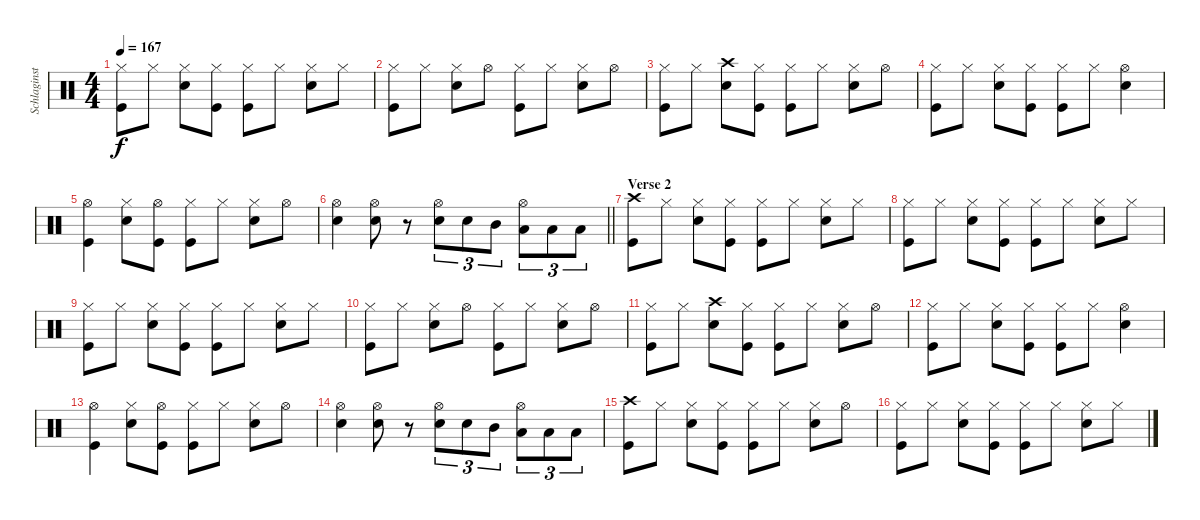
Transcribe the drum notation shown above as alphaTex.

\track ("Schlaginstrumente - Auswahl" "Schlaginst") {instrument percussion}
\staff {score}
\articulation defaults
\ts (4 4)
\tempo 167
\clef neutral
\ks c
("Hi-Hat (closed)" "Kick (hit)").8{dy f} "Hi-Hat (closed)".8 ("Hi-Hat (closed)" "Snare (hit) 2").8 ("Hi-Hat (closed)" "Kick (hit)").8 ("Hi-Hat (closed)" "Kick (hit)").8 "Hi-Hat (closed)".8 ("Hi-Hat (closed)" "Snare (hit) 2").8 "Hi-Hat (closed)".8 |
("Hi-Hat (closed)" "Kick (hit)").8 "Hi-Hat (closed)".8 ("Hi-Hat (closed)" "Snare (hit) 2").8 "Hi-Hat (open)".8 ("Hi-Hat (closed)" "Kick (hit)").8 "Hi-Hat (closed)".8 ("Hi-Hat (closed)" "Snare (hit) 2").8 "Hi-Hat (open)".8 |
("Hi-Hat (closed)" "Kick (hit)").8 "Hi-Hat (closed)".8 ("Crash high (hit)" "Snare (hit) 2").8 ("Hi-Hat (closed)" "Kick (hit)").8 ("Hi-Hat (closed)" "Kick (hit)").8 "Hi-Hat (closed)".8 ("Hi-Hat (closed)" "Snare (hit) 2").8 "Hi-Hat (open)".8 |
("Hi-Hat (closed)" "Kick (hit)").8 "Hi-Hat (closed)".8 ("Hi-Hat (closed)" "Snare (hit) 2").8 ("Hi-Hat (closed)" "Kick (hit)").8 ("Hi-Hat (closed)" "Kick (hit)").8 "Hi-Hat (closed)".8 ("Hi-Hat (open)" "Snare (hit) 2").4 |
("Hi-Hat (open)" "Kick (hit)").4 ("Hi-Hat (closed)" "Snare (hit) 2").8 ("Hi-Hat (open)" "Kick (hit)").8 ("Hi-Hat (closed)" "Kick (hit)").8 "Hi-Hat (closed)".8 ("Hi-Hat (closed)" "Snare (hit) 2").8 "Hi-Hat (open)".8 |
\barLineRight lightlight
("Hi-Hat (open)" "Snare (hit) 2").4 ("Hi-Hat (open)" "Snare (hit) 2").8 r.8 ("Hi-Hat (open)" "Snare (hit) 2").8{tu (3 2)} "Snare (hit) 2".8{tu (3 2)} "Mid Tom (hit)".8{tu (3 2)} ("Hi-Hat (open)" "Low Tom (hit)").8{tu (3 2)} "Low Tom (hit)".8{tu (3 2)} "Low Tom (hit)".8{tu (3 2)} |
\section ("" "Verse 2")
("Crash high (hit)" "Kick (hit)").8 "Hi-Hat (closed)".8 ("Hi-Hat (closed)" "Snare (hit) 2").8 ("Hi-Hat (closed)" "Kick (hit)").8 ("Hi-Hat (closed)" "Kick (hit)").8 "Hi-Hat (closed)".8 ("Hi-Hat (closed)" "Snare (hit) 2").8 "Hi-Hat (closed)".8 |
("Hi-Hat (closed)" "Kick (hit)").8 "Hi-Hat (closed)".8 ("Hi-Hat (closed)" "Snare (hit) 2").8 ("Hi-Hat (closed)" "Kick (hit)").8 ("Hi-Hat (closed)" "Kick (hit)").8 "Hi-Hat (closed)".8 ("Hi-Hat (closed)" "Snare (hit) 2").8 "Hi-Hat (closed)".8 |
("Hi-Hat (closed)" "Kick (hit)").8 "Hi-Hat (closed)".8 ("Hi-Hat (closed)" "Snare (hit) 2").8 ("Hi-Hat (closed)" "Kick (hit)").8 ("Hi-Hat (closed)" "Kick (hit)").8 "Hi-Hat (closed)".8 ("Hi-Hat (closed)" "Snare (hit) 2").8 "Hi-Hat (closed)".8 |
("Hi-Hat (closed)" "Kick (hit)").8 "Hi-Hat (closed)".8 ("Hi-Hat (closed)" "Snare (hit) 2").8 "Hi-Hat (open)".8 ("Hi-Hat (closed)" "Kick (hit)").8 "Hi-Hat (closed)".8 ("Hi-Hat (closed)" "Snare (hit) 2").8 "Hi-Hat (open)".8 |
("Hi-Hat (closed)" "Kick (hit)").8 "Hi-Hat (closed)".8 ("Crash high (hit)" "Snare (hit) 2").8 ("Hi-Hat (closed)" "Kick (hit)").8 ("Hi-Hat (closed)" "Kick (hit)").8 "Hi-Hat (closed)".8 ("Hi-Hat (closed)" "Snare (hit) 2").8 "Hi-Hat (open)".8 |
("Hi-Hat (closed)" "Kick (hit)").8 "Hi-Hat (closed)".8 ("Hi-Hat (closed)" "Snare (hit) 2").8 ("Hi-Hat (closed)" "Kick (hit)").8 ("Hi-Hat (closed)" "Kick (hit)").8 "Hi-Hat (closed)".8 ("Hi-Hat (open)" "Snare (hit) 2").4 |
("Hi-Hat (open)" "Kick (hit)").4 ("Hi-Hat (closed)" "Snare (hit) 2").8 ("Hi-Hat (open)" "Kick (hit)").8 ("Hi-Hat (closed)" "Kick (hit)").8 "Hi-Hat (closed)".8 ("Hi-Hat (closed)" "Snare (hit) 2").8 "Hi-Hat (open)".8 |
("Hi-Hat (open)" "Snare (hit) 2").4 ("Hi-Hat (open)" "Snare (hit) 2").8 r.8 ("Hi-Hat (open)" "Snare (hit) 2").8{tu (3 2)} "Snare (hit) 2".8{tu (3 2)} "Mid Tom (hit)".8{tu (3 2)} ("Hi-Hat (open)" "Low Tom (hit)").8{tu (3 2)} "Low Tom (hit)".8{tu (3 2)} "Low Tom (hit)".8{tu (3 2)} |
("Crash high (hit)" "Kick (hit)").8 "Hi-Hat (closed)".8 ("Hi-Hat (closed)" "Snare (hit) 2").8 ("Hi-Hat (closed)" "Kick (hit)").8 ("Hi-Hat (closed)" "Kick (hit)").8 "Hi-Hat (closed)".8 ("Hi-Hat (closed)" "Snare (hit) 2").8 "Hi-Hat (open)".8 |
("Hi-Hat (closed)" "Kick (hit)").8 "Hi-Hat (closed)".8 ("Hi-Hat (closed)" "Snare (hit) 2").8 ("Hi-Hat (closed)" "Kick (hit)").8 ("Hi-Hat (closed)" "Kick (hit)").8 "Hi-Hat (closed)".8 ("Hi-Hat (closed)" "Snare (hit) 2").8 "Hi-Hat (closed)".8
